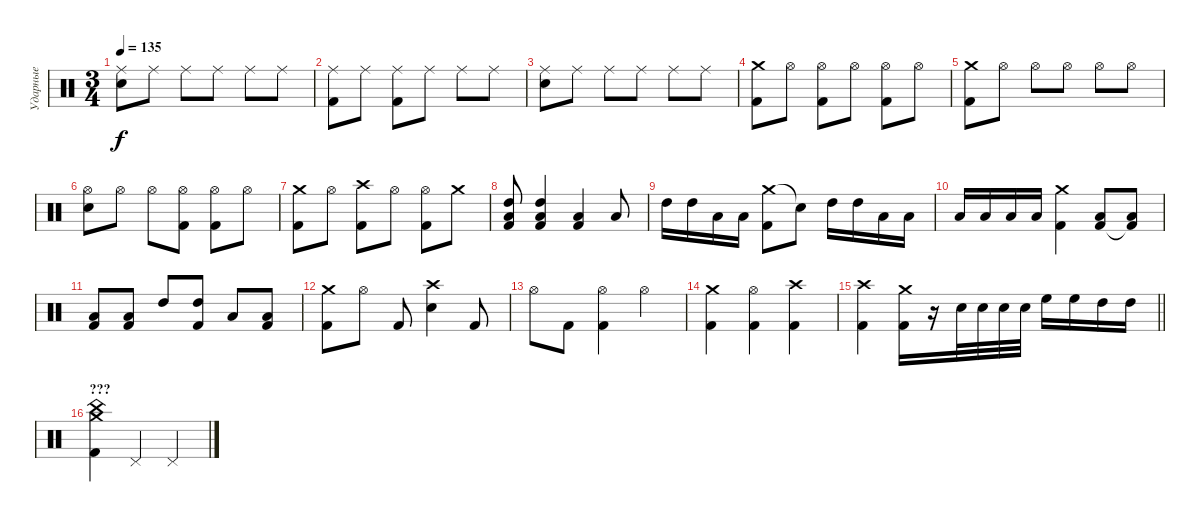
\track ("Ударные" "Ударные") {instrument percussion}
\staff {score}
\articulation defaults
\ts (3 4)
\tempo 135
\clef neutral
\ks c
("Ride (middle)" "Electric Snare (hit)").8{dy f} "Ride (middle)".8 "Ride (middle)".8 "Ride (middle)".8 "Ride (middle)".8 "Ride (middle)".8 |
("Ride (middle)" "Kick (hit) 2").8 "Ride (middle)".8 ("Ride (middle)" "Kick (hit) 2").8 "Ride (middle)".8 "Ride (middle)".8 "Ride (middle)".8 |
("Ride (middle)" "Electric Snare (hit)").8 "Ride (middle)".8 "Ride (middle)".8 "Ride (middle)".8 "Ride (middle)".8 "Ride (middle)".8 |
("Crash medium (hit)" "Kick (hit) 2").8 "Hi-Hat (open)".8 ("Hi-Hat (open)" "Kick (hit) 2").8 "Hi-Hat (open)".8 ("Hi-Hat (open)" "Kick (hit) 2").8 "Hi-Hat (open)".8 |
("Crash medium (hit)" "Kick (hit) 2").8 "Hi-Hat (open)".8 "Hi-Hat (open)".8 "Hi-Hat (open)".8 "Hi-Hat (open)".8 "Hi-Hat (open)".8 |
("Hi-Hat (open)" "Electric Snare (hit)").8 "Hi-Hat (open)".8 "Hi-Hat (open)".8 ("Hi-Hat (open)" "Kick (hit) 2").8 ("Hi-Hat (open)" "Kick (hit) 2").8 "Hi-Hat (open)".8 |
("Crash medium (hit)" "Kick (hit) 2").8 "Hi-Hat (open)".8 ("Crash high (hit)" "Kick (hit) 2").8 "Hi-Hat (open)".8 ("Hi-Hat (open)" "Kick (hit) 2").8 "Crash medium (hit)".8 |
("Low Tom (hit)" "High Tom (hit)" "Kick (hit) 2").8 ("Low Tom (hit)" "High Tom (hit)" "Kick (hit) 2").4 ("Low Tom (hit)" "Kick (hit) 2").4 "Low Tom (hit)".8 |
"High Tom (hit)".16 "High Tom (hit)".16 "Low Floor Tom (hit)".16 "Low Floor Tom (hit)".16 ("Crash medium (hit)" "Kick (hit) 2").8 "Snare (hit)"{t}.8 "High Tom (hit)".16 "High Tom (hit)".16 "Low Floor Tom (hit)".16 "Low Floor Tom (hit)".16 |
"Low Floor Tom (hit)".16 "Low Floor Tom (hit)".16 "Low Floor Tom (hit)".16 "Low Floor Tom (hit)".16 ("Crash medium (hit)" "Kick (hit) 2").4 ("Low Tom (hit)" "Kick (hit) 2").8 ("Low Tom (hit)" "Kick (hit) 2"{t}).8 |
("Low Floor Tom (hit)" "Kick (hit) 2").8 ("Low Floor Tom (hit)" "Kick (hit) 2").8 "High Tom (hit)".8 ("High Tom (hit)" "Kick (hit) 2").8 "Low Tom (hit)".8 ("Low Tom (hit)" "Kick (hit) 2").8 |
("Crash medium (hit)" "Kick (hit) 2").8 "Hi-Hat (open)".8 "Kick (hit) 2".8 ("Crash high (hit)" "Electric Snare (hit)").4 "Kick (hit) 2".8 |
"Hi-Hat (open)".8 "Kick (hit) 2".8 ("Hi-Hat (open)" "Kick (hit) 2").4 "Hi-Hat (open)".4 |
("Crash medium (hit)" "Kick (hit) 2").4 ("Hi-Hat (open)" "Kick (hit) 2").4 ("Crash high (hit)" "Kick (hit) 2").4 |
\barLineRight lightlight
("Crash high (hit)" "Kick (hit) 2").4 ("Crash medium (hit)" "Kick (hit) 2").16 r.16 "Electric Snare (hit)".32 "Electric Snare (hit)".32 "Electric Snare (hit)".32 "Electric Snare (hit)".32 "High Floor Tom (hit)".16 "High Floor Tom (hit)".16 "High Tom (hit)".16 "High Tom (hit)".16 |
\section ("" "???")
("China (hit)" "Crash medium (hit)" "Kick (hit) 2").4 "Pedal Hi-Hat (hit)".4 "Pedal Hi-Hat (hit)".4
